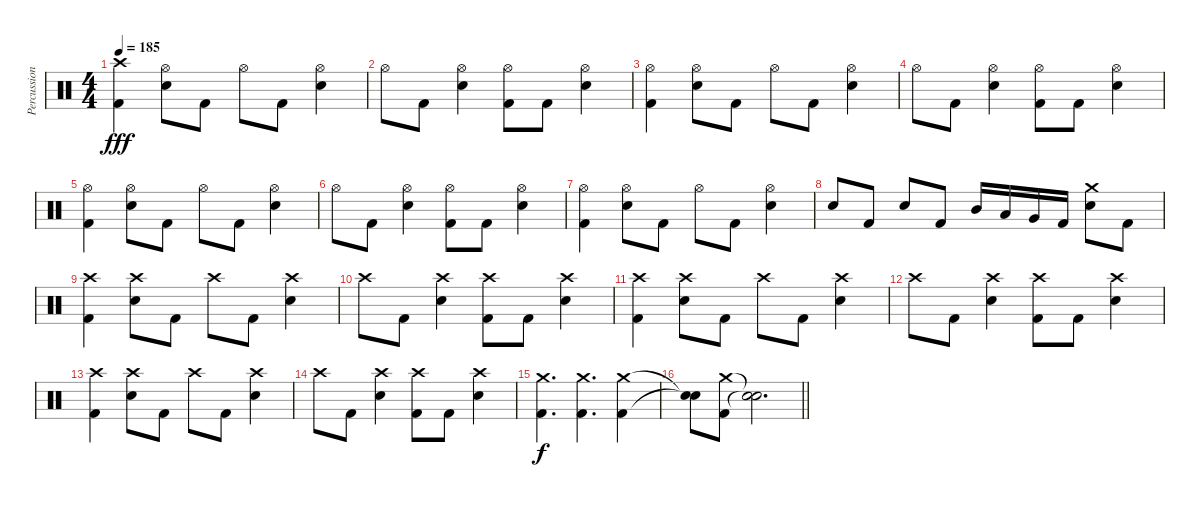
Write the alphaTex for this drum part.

\track ("Percussion" "Percussion") {instrument percussion}
\staff {score}
\articulation defaults
\ts (4 4)
\tempo 185
\clef neutral
\ks c
("Crash high (hit)" "Kick (hit) 2").4{dy fff} ("Hi-Hat (open)" "Snare (hit) 2").8 "Kick (hit) 2".8 "Hi-Hat (open)".8 "Kick (hit) 2".8 ("Hi-Hat (open)" "Snare (hit) 2").4 |
"Hi-Hat (open)".8 "Kick (hit) 2".8 ("Hi-Hat (open)" "Snare (hit) 2").4 ("Hi-Hat (open)" "Kick (hit) 2").8 "Kick (hit) 2".8 ("Hi-Hat (open)" "Snare (hit) 2").4 |
("Hi-Hat (open)" "Kick (hit) 2").4 ("Hi-Hat (open)" "Snare (hit) 2").8 "Kick (hit) 2".8 "Hi-Hat (open)".8 "Kick (hit) 2".8 ("Hi-Hat (open)" "Snare (hit) 2").4 |
"Hi-Hat (open)".8 "Kick (hit) 2".8 ("Hi-Hat (open)" "Snare (hit) 2").4 ("Hi-Hat (open)" "Kick (hit) 2").8 "Kick (hit) 2".8 ("Hi-Hat (open)" "Snare (hit) 2").4 |
("Hi-Hat (open)" "Kick (hit) 2").4 ("Hi-Hat (open)" "Snare (hit) 2").8 "Kick (hit) 2".8 "Hi-Hat (open)".8 "Kick (hit) 2".8 ("Hi-Hat (open)" "Snare (hit) 2").4 |
"Hi-Hat (open)".8 "Kick (hit) 2".8 ("Hi-Hat (open)" "Snare (hit) 2").4 ("Hi-Hat (open)" "Kick (hit) 2").8 "Kick (hit) 2".8 ("Hi-Hat (open)" "Snare (hit) 2").4 |
("Hi-Hat (open)" "Kick (hit) 2").4 ("Hi-Hat (open)" "Snare (hit) 2").8 "Kick (hit) 2".8 "Hi-Hat (open)".8 "Kick (hit) 2".8 ("Hi-Hat (open)" "Snare (hit) 2").4 |
"Snare (hit) 2".8 "Kick (hit) 2".8 "Snare (hit) 2".8 "Kick (hit) 2".8 "Mid Tom (hit)".16 "Low Tom (hit)".16 "Very Low Tom (hit)".16 "Kick (hit) 2".16 ("Crash medium (hit)" "Snare (hit) 2").8 "Kick (hit) 2".8 |
("Crash high (hit)" "Kick (hit) 2").4 ("Crash high (hit)" "Snare (hit) 2").8 "Kick (hit) 2".8 "Crash high (hit)".8 "Kick (hit) 2".8 ("Crash high (hit)" "Snare (hit) 2").4 |
"Crash high (hit)".8 "Kick (hit) 2".8 ("Crash high (hit)" "Snare (hit) 2").4 ("Crash high (hit)" "Kick (hit) 2").8 "Kick (hit) 2".8 ("Crash high (hit)" "Snare (hit) 2").4 |
("Crash high (hit)" "Kick (hit) 2").4 ("Crash high (hit)" "Snare (hit) 2").8 "Kick (hit) 2".8 "Crash high (hit)".8 "Kick (hit) 2".8 ("Crash high (hit)" "Snare (hit) 2").4 |
"Crash high (hit)".8 "Kick (hit) 2".8 ("Crash high (hit)" "Snare (hit) 2").4 ("Crash high (hit)" "Kick (hit) 2").8 "Kick (hit) 2".8 ("Crash high (hit)" "Snare (hit) 2").4 |
("Crash high (hit)" "Kick (hit) 2").4 ("Crash high (hit)" "Snare (hit) 2").8 "Kick (hit) 2".8 "Crash high (hit)".8 "Kick (hit) 2".8 ("Crash high (hit)" "Snare (hit) 2").4 |
"Crash high (hit)".8 "Kick (hit) 2".8 ("Crash high (hit)" "Snare (hit) 2").4 ("Crash high (hit)" "Kick (hit) 2").8 "Kick (hit) 2".8 ("Crash high (hit)" "Snare (hit) 2").4 |
("Crash medium (hit)" "Kick (hit) 2").4{d dy f} ("Crash medium (hit)" "Kick (hit) 2").4{d} ("Crash medium (hit)" "Kick (hit) 2").4 |
\barLineRight lightlight
("Snare (hit)"{t} "Snare (hit)"{t}).8 ("Crash medium (hit)" "Kick (hit) 2").8 ("Snare (hit)"{t} "Snare (hit)"{t}).2{d}
